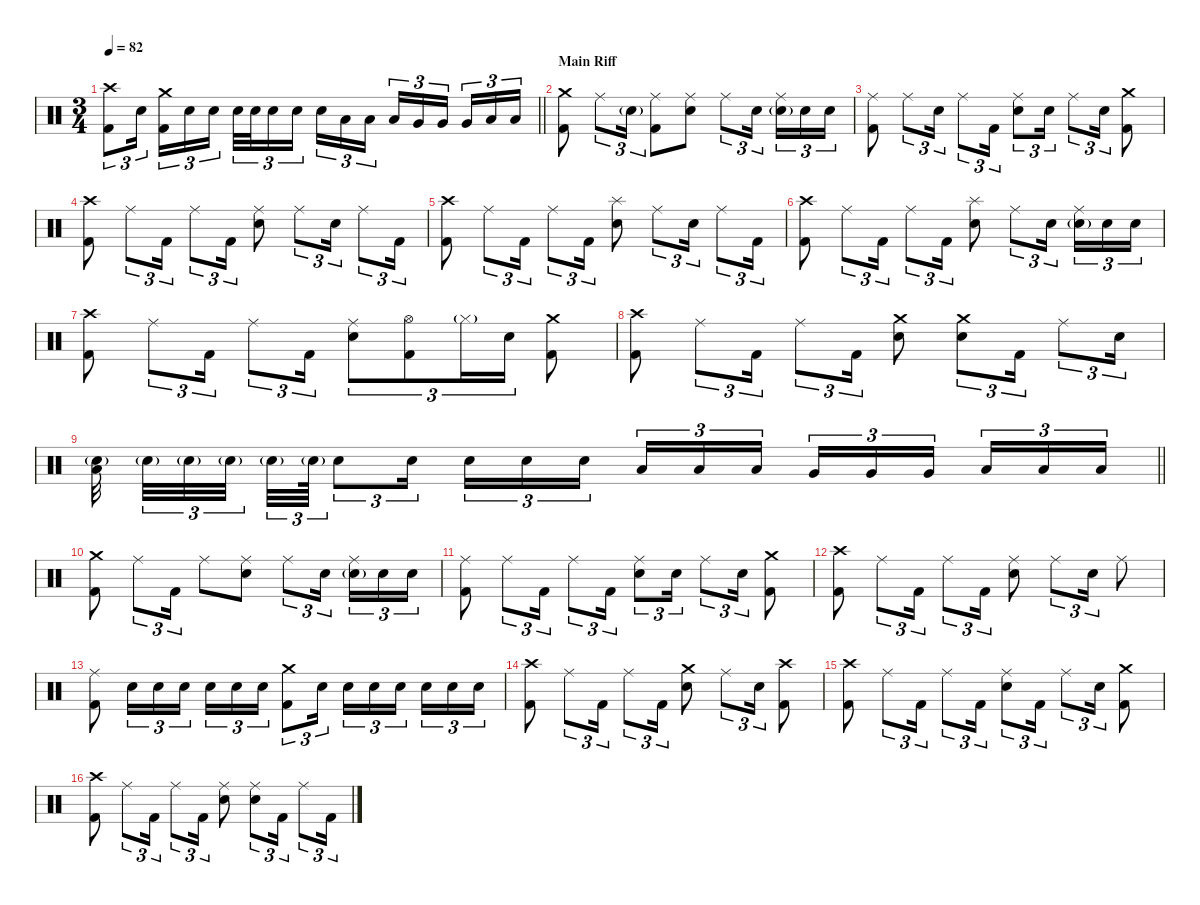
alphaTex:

\defaultSystemsLayout 4
\hideDynamics
\bracketExtendMode nobrackets
\singleTrackTrackNamePolicy hidden
\multiTrackTrackNamePolicy hidden
\firstSystemTrackNameMode fullname
\otherSystemsTrackNameOrientation horizontal
\track ("Drums" "drm.") {defaultSystemsLayout 4 instrument percussion}
\staff {score}
\articulation defaults
\ts (3 4)
\tempo 82
\clef neutral
\barLineRight lightlight
\ks c
("Crash high (hit)" "Kick (hit) 2").8{tu (3 2) dy f beam Down} "Snare (hit) 2".16{tu (3 2) beam Down} ("Crash medium (hit)" "Kick (hit) 2").16{tu (3 2) beam Down} "Snare (hit) 2".16{tu (3 2) beam Down} "Snare (hit) 2".16{tu (3 2) beam Down} "Snare (hit) 2".32{tu (3 2) beam Down} "Snare (hit) 2".32{tu (3 2) beam Down} "Snare (hit) 2".16{tu (3 2) beam Down} "Snare (hit) 2".16{tu (3 2) beam Down} "Snare (hit) 2".16{tu (3 2) beam Down} "Low Tom (hit)".16{tu (3 2) beam Down} "Low Tom (hit)".16{tu (3 2) beam Down} "Low Tom (hit)".16{tu (3 2) beam Up} "Very Low Tom (hit)".16{tu (3 2) beam Up} "Very Low Tom (hit)".16{tu (3 2) beam Up} "Very Low Tom (hit)".16{tu (3 2) beam Up} "Low Floor Tom (hit)".16{tu (3 2) beam Up} "Low Floor Tom (hit)".16{tu (3 2) beam Up} |
\section ("" "Main Riff")
("Crash medium (hit)" "Kick (hit) 2").8{beam Down} "Ride (middle)".8{tu (3 2) beam Down} "Snare (hit) 2"{g}.16{tu (3 2) dy mf beam Down} ("Ride (middle)" "Kick (hit) 2").8{dy f beam Down} ("Ride (middle)" "Snare (hit) 2").8{beam Down} "Ride (middle)".8{tu (3 2) beam Down} "Snare (hit) 2".16{tu (3 2) beam Down} ("Ride (middle)" "Snare (hit) 2"{g}).16{tu (3 2) beam Down} "Snare (hit) 2".16{tu (3 2) beam Down} "Snare (hit) 2".16{tu (3 2) beam Down} |
("Ride (middle)" "Kick (hit) 2").8{beam Down} "Ride (middle)".8{tu (3 2) beam Down} "Snare (hit) 2".16{tu (3 2) beam Down} "Ride (middle)".8{tu (3 2) beam Down} "Kick (hit) 2".16{tu (3 2) beam Down} ("Ride (middle)" "Snare (hit) 2").8{tu (3 2) beam Down} "Snare (hit) 2".16{tu (3 2) beam Down} "Ride (middle)".8{tu (3 2) beam Down} "Snare (hit) 2".16{tu (3 2) beam Down} ("Crash medium (hit)" "Kick (hit) 2").8{beam Down} |
("Crash high (hit)" "Kick (hit) 2").8{beam Down} "Ride (middle)".8{tu (3 2) beam Down} "Kick (hit) 2".16{tu (3 2) beam Down} "Ride (middle)".8{tu (3 2) beam Down} "Kick (hit) 2".16{tu (3 2) beam Down} ("Ride (middle)" "Snare (hit) 2").8{beam Down} "Ride (middle)".8{tu (3 2) beam Down} "Snare (hit) 2".16{tu (3 2) beam Down} "Ride (middle)".8{tu (3 2) beam Down} "Kick (hit) 2".16{tu (3 2) beam Down} |
("Crash high (hit)" "Kick (hit) 2").8{beam Down} "Ride (middle)".8{tu (3 2) beam Down} "Kick (hit) 2".16{tu (3 2) beam Down} "Ride (middle)".8{tu (3 2) beam Down} "Kick (hit) 2".16{tu (3 2) beam Down} ("Splash (hit)" "Snare (hit) 2").8{beam Down} "Ride (middle)".8{tu (3 2) beam Down} "Snare (hit) 2".16{tu (3 2) beam Down} "Ride (middle)".8{tu (3 2) beam Down} "Kick (hit) 2".16{tu (3 2) beam Down} |
("Crash high (hit)" "Kick (hit) 2").8{beam Down} "Ride (middle)".8{tu (3 2) beam Down} "Kick (hit) 2".16{tu (3 2) beam Down} "Ride (middle)".8{tu (3 2) beam Down} "Kick (hit) 2".16{tu (3 2) beam Down} ("Splash (hit)" "Snare (hit) 2").8{beam Down} "Ride (middle)".8{tu (3 2) beam Down} "Snare (hit) 2".16{tu (3 2) beam Down} ("Ride (middle)" "Snare (hit) 2"{g}).16{tu (3 2) beam Down} "Snare (hit) 2".16{tu (3 2) beam Down} "Snare (hit) 2".16{tu (3 2) beam Down} |
("Crash high (hit)" "Kick (hit) 2").8{beam Down} "Ride (middle)".8{tu (3 2) beam Down} "Kick (hit) 2".16{tu (3 2) beam Down} "Ride (middle)".8{tu (3 2) beam Down} "Kick (hit) 2".16{tu (3 2) beam Down} ("Ride (middle)" "Snare (hit) 2").8{tu (3 2) beam Down} ("Hi-Hat (open)" "Kick (hit) 2").8{tu (3 2) beam Down} "Hi-Hat (closed)"{g}.16{tu (3 2) dy pp beam Down} "Snare (hit) 2".16{tu (3 2) dy f beam Down} ("Crash medium (hit)" "Kick (hit) 2").8{beam Down} |
("Crash high (hit)" "Kick (hit) 2").8{beam Down} "Ride (middle)".8{tu (3 2) beam Down} "Kick (hit) 2".16{tu (3 2) beam Down} "Ride (middle)".8{tu (3 2) beam Down} "Kick (hit) 2".16{tu (3 2) beam Down} ("Crash medium (hit)" "Snare (hit) 2").8{beam Down} ("Crash medium (hit)" "Snare (hit) 2").8{tu (3 2) beam Down} "Kick (hit) 2".16{tu (3 2) beam Down} "Ride (middle)".8{tu (3 2) beam Down} "Snare (hit) 2".16{tu (3 2) beam Down} |
\barLineRight lightlight
("Low Floor Tom (hit)" "Snare (hit) 2"{g}).32{beam Down} "Snare (hit) 2"{g}.32{tu (3 2) dy mf beam Down} "Snare (hit) 2"{g}.32{tu (3 2) beam Down} "Snare (hit) 2"{g}.32{tu (3 2) beam Down} "Snare (hit) 2"{g}.32{tu (3 2) beam Down} "Snare (hit) 2"{g}.64{tu (3 2) beam Down} "Snare (hit) 2".8{tu (3 2) dy f beam Down} "Snare (hit) 2".16{tu (3 2) beam Down} "Snare (hit) 2".16{tu (3 2) beam Down} "Snare (hit) 2".16{tu (3 2) beam Down} "Snare (hit) 2".16{tu (3 2) beam Down} "Low Tom (hit)".16{tu (3 2) beam Up} "Low Tom (hit)".16{tu (3 2) beam Up} "Low Tom (hit)".16{tu (3 2) beam Up} "Very Low Tom (hit)".16{tu (3 2) beam Up} "Very Low Tom (hit)".16{tu (3 2) beam Up} "Very Low Tom (hit)".16{tu (3 2) beam Up} "Low Floor Tom (hit)".16{tu (3 2) beam Up} "Low Floor Tom (hit)".16{tu (3 2) beam Up} "Low Floor Tom (hit)".16{tu (3 2) beam Up} |
("Crash medium (hit)" "Kick (hit) 2").8{beam Down} "Ride (middle)".8{tu (3 2) beam Down} "Kick (hit) 2".16{tu (3 2) beam Down} "Ride (middle)".8{beam Down} ("Ride (middle)" "Snare (hit) 2").8{beam Down} "Ride (middle)".8{tu (3 2) beam Down} "Snare (hit) 2".16{tu (3 2) beam Down} ("Ride (middle)" "Snare (hit) 2"{g}).16{tu (3 2) beam Down} "Snare (hit) 2".16{tu (3 2) beam Down} "Snare (hit) 2".16{tu (3 2) beam Down} |
("Ride (middle)" "Kick (hit) 2").8{beam Down} "Ride (middle)".8{tu (3 2) beam Down} "Kick (hit) 2".16{tu (3 2) beam Down} "Ride (middle)".8{tu (3 2) beam Down} "Kick (hit) 2".16{tu (3 2) beam Down} ("Ride (middle)" "Snare (hit) 2").8{tu (3 2) beam Down} "Snare (hit) 2".16{tu (3 2) beam Down} "Ride (middle)".8{tu (3 2) beam Down} "Snare (hit) 2".16{tu (3 2) beam Down} ("Crash medium (hit)" "Kick (hit) 2").8{beam Down} |
("Crash high (hit)" "Kick (hit) 2").8{beam Down} "Ride (middle)".8{tu (3 2) beam Down} "Kick (hit) 2".16{tu (3 2) beam Down} "Ride (middle)".8{tu (3 2) beam Down} "Kick (hit) 2".16{tu (3 2) beam Down} ("Ride (middle)" "Snare (hit) 2").8{beam Down} "Ride (middle)".8{tu (3 2) beam Down} "Snare (hit) 2".16{tu (3 2) beam Down} "Ride (middle)".8{beam Down} |
("Ride (middle)" "Kick (hit) 2").8{beam Down} "Snare (hit) 2".16{tu (3 2) beam Down} "Snare (hit) 2".16{tu (3 2) beam Down} "Snare (hit) 2".16{tu (3 2) beam Down} "Snare (hit) 2".16{tu (3 2) beam Down} "Snare (hit) 2".16{tu (3 2) beam Down} "Snare (hit) 2".16{tu (3 2) beam Down} ("Crash medium (hit)" "Kick (hit) 2").8{tu (3 2) beam Down} "Snare (hit) 2".16{tu (3 2) beam Down} "Snare (hit) 2".16{tu (3 2) beam Down} "Snare (hit) 2".16{tu (3 2) beam Down} "Snare (hit) 2".16{tu (3 2) beam Down} "Snare (hit) 2".16{tu (3 2) beam Down} "Snare (hit) 2".16{tu (3 2) beam Down} "Snare (hit) 2".16{tu (3 2) beam Down} |
("Crash high (hit)" "Kick (hit) 2").8{beam Down} "Ride (middle)".8{tu (3 2) beam Down} "Kick (hit) 2".16{tu (3 2) beam Down} "Ride (middle)".8{tu (3 2) beam Down} "Kick (hit) 2".16{tu (3 2) beam Down} ("Crash medium (hit)" "Snare (hit) 2").8{beam Down} "Ride (middle)".8{tu (3 2) beam Down} "Snare (hit) 2".16{tu (3 2) beam Down} ("Crash high (hit)" "Kick (hit) 2").8{beam Down} |
("Crash high (hit)" "Kick (hit) 2").8{beam Down} "Ride (middle)".8{tu (3 2) beam Down} "Kick (hit) 2".16{tu (3 2) beam Down} "Ride (middle)".8{tu (3 2) beam Down} "Kick (hit) 2".16{tu (3 2) beam Down} ("Ride (middle)" "Snare (hit) 2").8{tu (3 2) beam Down} "Kick (hit) 2".16{tu (3 2) beam Down} "Ride (middle)".8{tu (3 2) beam Down} "Snare (hit) 2".16{tu (3 2) beam Down} ("Crash medium (hit)" "Kick (hit) 2").8{beam Down} |
("Crash high (hit)" "Kick (hit) 2").8{beam Down} "Ride (middle)".8{tu (3 2) beam Down} "Kick (hit) 2".16{tu (3 2) beam Down} "Ride (middle)".8{tu (3 2) beam Down} "Kick (hit) 2".16{tu (3 2) beam Down} ("Ride (middle)" "Snare (hit) 2").8{beam Down} ("Ride (middle)" "Snare (hit) 2").8{tu (3 2) beam Down} "Kick (hit) 2".16{tu (3 2) beam Down} "Ride (middle)".8{tu (3 2) beam Down} "Kick (hit) 2".16{tu (3 2) beam Down}
